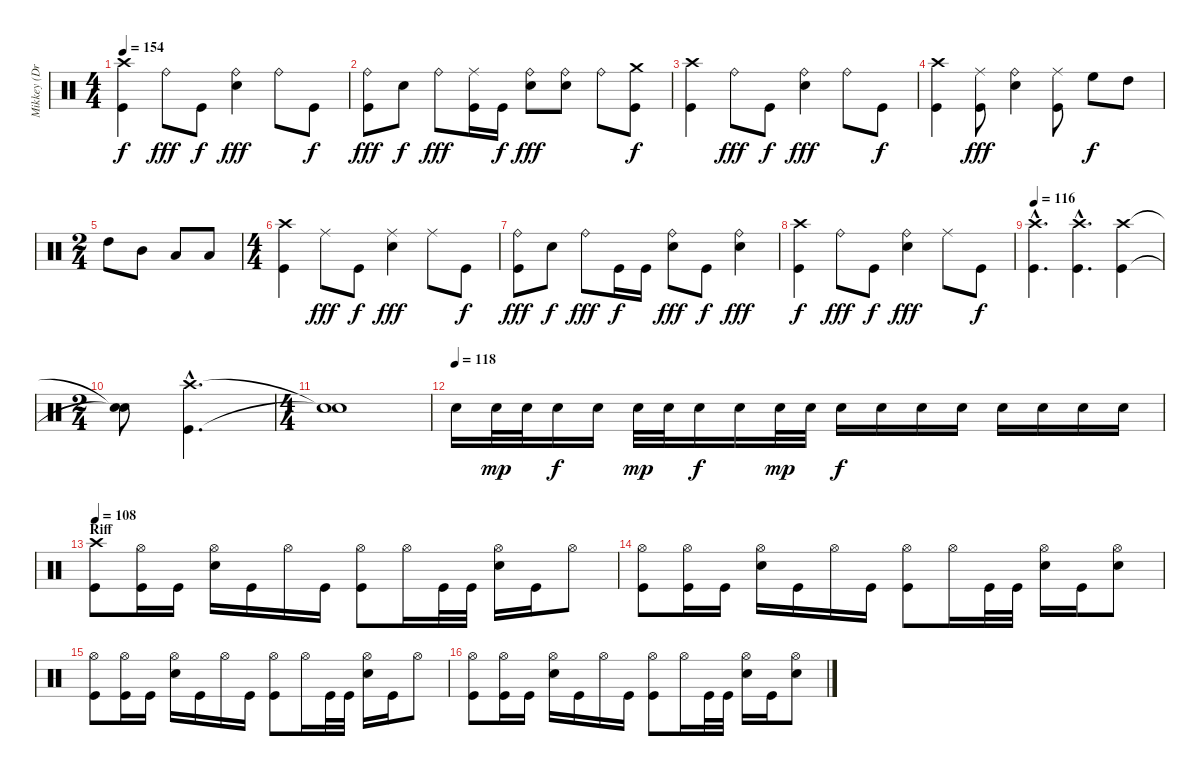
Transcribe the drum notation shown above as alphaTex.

\track ("Mikkey (Drums)" "Mikkey (Dr") {instrument percussion}
\staff {score}
\articulation defaults
\ts (4 4)
\tempo 154
\clef neutral
\ks c
("Crash high (hit)" "Kick (hit)").4{dy f} "Ride (bell)".8{dy fff} "Kick (hit)".8{dy f} ("Ride (bell)" "Electric Snare (hit)").4{dy fff} "Ride (bell)".8 "Kick (hit)".8{dy f} |
("Ride (bell)" "Kick (hit)").8{dy fff} "Electric Snare (hit)".8{dy f} "Ride (bell)".8{dy fff} ("Ride (middle)" "Kick (hit)").16 "Kick (hit)".16{dy f} ("Ride (bell)" "Electric Snare (hit)").8{dy fff} ("Ride (bell)" "Electric Snare (hit)").8 "Ride (bell)".8 ("Crash medium (hit)" "Kick (hit)").8{dy f} |
("Crash high (hit)" "Kick (hit)").4 "Ride (bell)".8{dy fff} "Kick (hit)".8{dy f} ("Ride (bell)" "Electric Snare (hit)").4{dy fff} "Ride (bell)".8 "Kick (hit)".8{dy f} |
("Crash high (hit)" "Kick (hit)").4 ("Ride (middle)" "Kick (hit)").8{dy fff} ("Ride (bell)" "Electric Snare (hit)").4 ("Ride (middle)" "Kick (hit)").8 "High Floor Tom (hit)".8{dy f} "High Tom (hit)".8 |
\ts (2 4)
"High Tom (hit)".8 "Mid Tom (hit)".8 "Low Tom (hit)".8 "Low Tom (hit)".8 |
\ts (4 4)
("Crash high (hit)" "Kick (hit)").4 "Ride (middle)".8{dy fff} "Kick (hit)".8{dy f} ("Ride (middle)" "Electric Snare (hit)").4{dy fff} "Ride (middle)".8 "Kick (hit)".8{dy f} |
("Ride (bell)" "Kick (hit)").8{dy fff} "Electric Snare (hit)".8{dy f} "Ride (bell)".8{dy fff} "Kick (hit)".16{dy f} "Kick (hit)".16 ("Ride (bell)" "Electric Snare (hit)").8{dy fff} "Kick (hit)".8{dy f} ("Ride (bell)" "Electric Snare (hit)").4{dy fff} |
("Crash high (hit)" "Kick (hit)").4{dy f} "Ride (bell)".8{dy fff} "Kick (hit)".8{dy f} ("Ride (bell)" "Electric Snare (hit)").4{dy fff} "Ride (middle)".8 "Kick (hit)".8{dy f} |
\tempo 116
("Crash high (hit)"{hac} "Kick (hit)"{hac}).4{d} ("Crash high (hit)"{hac} "Kick (hit)"{hac}).4{d} ("Crash high (hit)" "Kick (hit)").4 |
\ts (2 4)
("Snare (hit)"{t} "Snare (hit)"{t}).8 ("Crash high (hit)"{hac} "Kick (hit)"{hac}).4{d} |
\ts (4 4)
("Snare (hit)"{t} "Snare (hit)"{t}).1 |
\tempo (118)
"Electric Snare (hit)".16 "Electric Snare (hit)".32{dy mp} "Electric Snare (hit)".32 "Electric Snare (hit)".16{dy f} "Electric Snare (hit)".16 "Electric Snare (hit)".32{dy mp} "Electric Snare (hit)".32 "Electric Snare (hit)".16{dy f} "Electric Snare (hit)".16 "Electric Snare (hit)".32{dy mp} "Electric Snare (hit)".32 "Electric Snare (hit)".16{dy f} "Electric Snare (hit)".16 "Electric Snare (hit)".16 "Electric Snare (hit)".16 "Electric Snare (hit)".16 "Electric Snare (hit)".16 "Electric Snare (hit)".16 "Electric Snare (hit)".16 |
\section ("" "Riff")
\tempo 108
("Crash high (hit)" "Kick (hit)").8 ("Hi-Hat (open)" "Kick (hit)").16 "Kick (hit)".16 ("Hi-Hat (open)" "Electric Snare (hit)").16 "Kick (hit)".16 "Hi-Hat (open)".16 "Kick (hit)".16 ("Hi-Hat (open)" "Kick (hit)").8 "Hi-Hat (open)".16 "Kick (hit)".32 "Kick (hit)".32 ("Hi-Hat (open)" "Electric Snare (hit)").16 "Kick (hit)".16 "Hi-Hat (open)".8 |
("Hi-Hat (open)" "Kick (hit)").8 ("Hi-Hat (open)" "Kick (hit)").16 "Kick (hit)".16 ("Hi-Hat (open)" "Electric Snare (hit)").16 "Kick (hit)".16 "Hi-Hat (open)".16 "Kick (hit)".16 ("Hi-Hat (open)" "Kick (hit)").8 "Hi-Hat (open)".16 "Kick (hit)".32 "Kick (hit)".32 ("Hi-Hat (open)" "Electric Snare (hit)").16 "Kick (hit)".16 ("Hi-Hat (open)" "Electric Snare (hit)").8 |
("Hi-Hat (open)" "Kick (hit)").8 ("Hi-Hat (open)" "Kick (hit)").16 "Kick (hit)".16 ("Hi-Hat (open)" "Electric Snare (hit)").16 "Kick (hit)".16 "Hi-Hat (open)".16 "Kick (hit)".16 ("Hi-Hat (open)" "Kick (hit)").8 "Hi-Hat (open)".16 "Kick (hit)".32 "Kick (hit)".32 ("Hi-Hat (open)" "Electric Snare (hit)").16 "Kick (hit)".16 "Hi-Hat (open)".8 |
("Hi-Hat (open)" "Kick (hit)").8 ("Hi-Hat (open)" "Kick (hit)").16 "Kick (hit)".16 ("Hi-Hat (open)" "Electric Snare (hit)").16 "Kick (hit)".16 "Hi-Hat (open)".16 "Kick (hit)".16 ("Hi-Hat (open)" "Kick (hit)").8 "Hi-Hat (open)".16 "Kick (hit)".32 "Kick (hit)".32 ("Hi-Hat (open)" "Electric Snare (hit)").16 "Kick (hit)".16 ("Hi-Hat (open)" "Electric Snare (hit)").8
